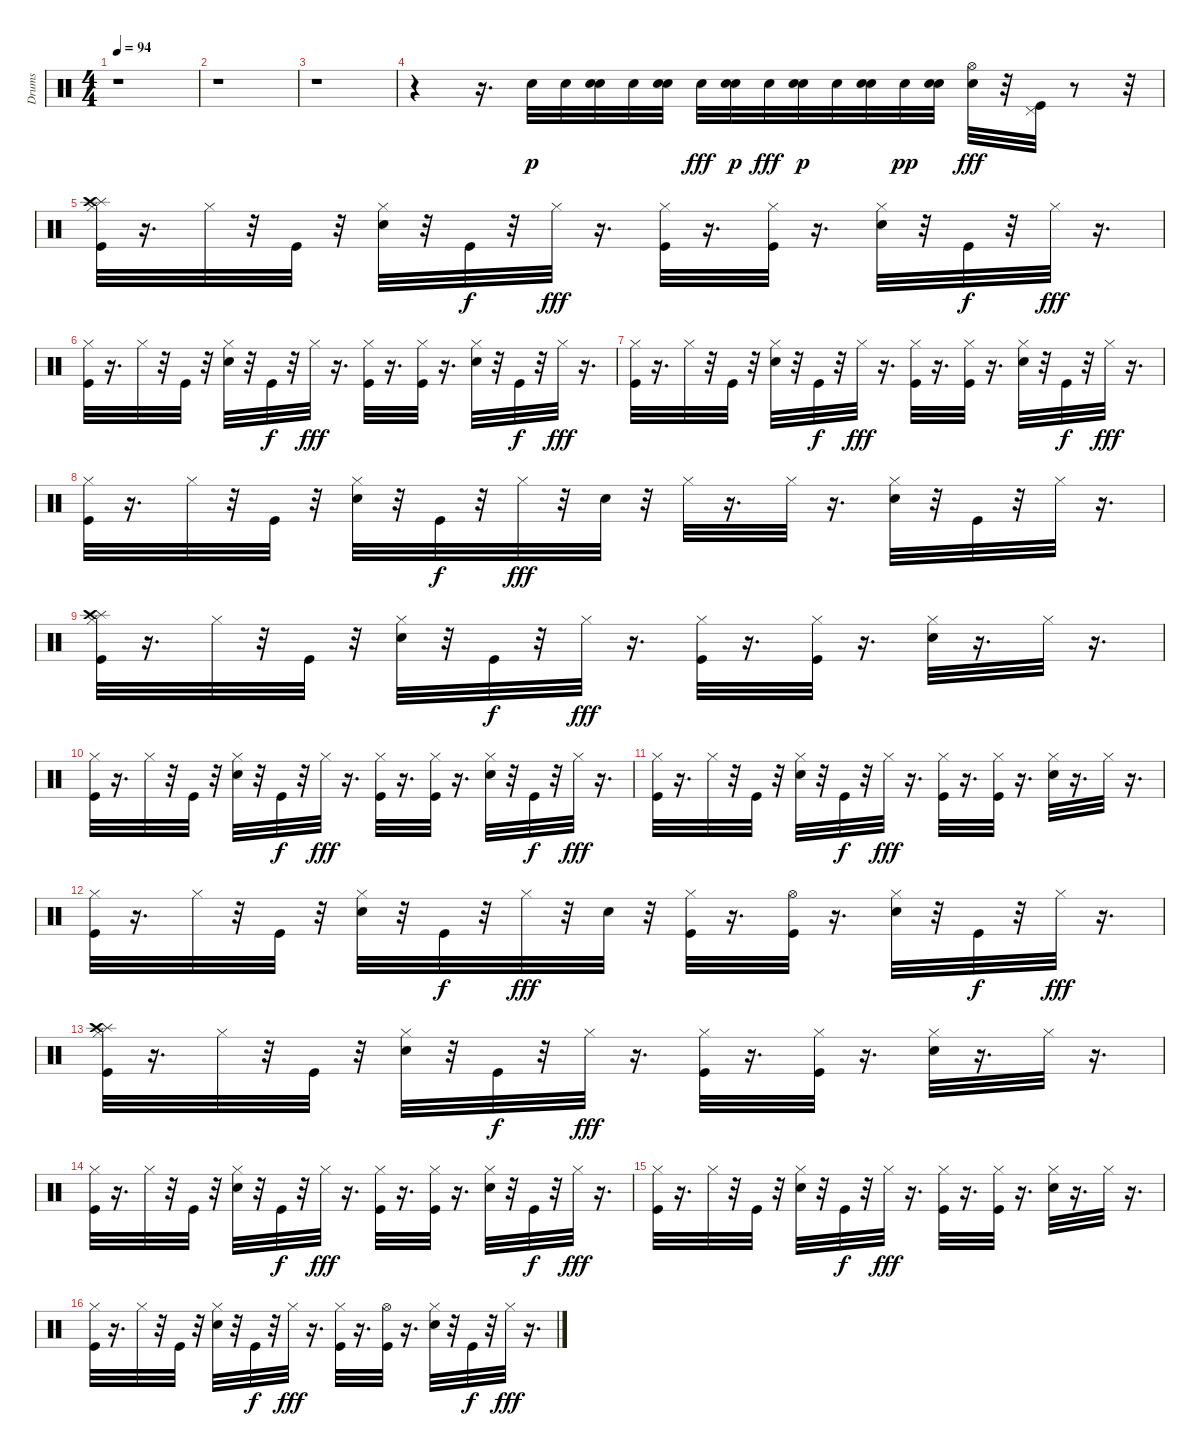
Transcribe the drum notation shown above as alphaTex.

\track ("Drums" "Drums") {instrument percussion}
\staff {score}
\articulation defaults
\ts (4 4)
\tempo 94
\clef neutral
\ks c
r.1{dy p} |
r.1 |
r.1 |
r.4 r.16{d} "Snare (hit) 2".32 "Snare (hit) 2".32 ("Snare (hit) 2" "Snare (hit) 2").32 "Snare (hit) 2".32 ("Snare (hit) 2" "Snare (hit) 2").32 "Electric Snare (hit)".32{dy fff} ("Snare (hit) 2" "Snare (hit) 2").32{dy p} "Electric Snare (hit)".32{dy fff} ("Snare (hit) 2" "Snare (hit) 2").32{dy p} "Snare (hit) 2".32 ("Snare (hit) 2" "Snare (hit) 2").32 "Snare (hit) 2".32{dy pp} ("Snare (hit) 2" "Snare (hit) 2").32 ("Hi-Hat (open)" "Electric Snare (hit)").32{dy fff} r.32 ("Pedal Hi-Hat (hit)" "Kick (hit)").32 r.8 r.32 |
("Splash (hit)" "Crash high (hit)" "Kick (hit)" "Hi-Hat (closed)").32 r.16{d} "Hi-Hat (closed)".32 r.32 "Kick (hit)".32 r.32 ("Electric Snare (hit)" "Hi-Hat (closed)").32 r.32 "Kick (hit)".32{dy f} r.32 "Hi-Hat (closed)".32{dy fff} r.16{d} ("Hi-Hat (closed)" "Kick (hit)").32 r.16{d} ("Hi-Hat (closed)" "Kick (hit)").32 r.16{d} ("Electric Snare (hit)" "Hi-Hat (closed)").32 r.32 "Kick (hit)".32{dy f} r.32 "Hi-Hat (closed)".32{dy fff} r.16{d} |
("Kick (hit)" "Hi-Hat (closed)").32 r.16{d} "Hi-Hat (closed)".32 r.32 "Kick (hit)".32 r.32 ("Electric Snare (hit)" "Hi-Hat (closed)").32 r.32 "Kick (hit)".32{dy f} r.32 "Hi-Hat (closed)".32{dy fff} r.16{d} ("Hi-Hat (closed)" "Kick (hit)").32 r.16{d} ("Hi-Hat (closed)" "Kick (hit)").32 r.16{d} ("Electric Snare (hit)" "Hi-Hat (closed)").32 r.32 "Kick (hit)".32{dy f} r.32 "Hi-Hat (closed)".32{dy fff} r.16{d} |
("Kick (hit)" "Hi-Hat (closed)").32 r.16{d} "Hi-Hat (closed)".32 r.32 "Kick (hit)".32 r.32 ("Electric Snare (hit)" "Hi-Hat (closed)").32 r.32 "Kick (hit)".32{dy f} r.32 "Hi-Hat (closed)".32{dy fff} r.16{d} ("Hi-Hat (closed)" "Kick (hit)").32 r.16{d} ("Hi-Hat (closed)" "Kick (hit)").32 r.16{d} ("Electric Snare (hit)" "Hi-Hat (closed)").32 r.32 "Kick (hit)".32{dy f} r.32 "Hi-Hat (closed)".32{dy fff} r.16{d} |
("Kick (hit)" "Hi-Hat (closed)").32 r.16{d} "Hi-Hat (closed)".32 r.32 "Kick (hit)".32 r.32 ("Electric Snare (hit)" "Hi-Hat (closed)").32 r.32 "Kick (hit)".32{dy f} r.32 "Hi-Hat (closed)".32{dy fff} r.32 "Electric Snare (hit)".32 r.32 "Hi-Hat (closed)".32 r.16{d} "Hi-Hat (closed)".32 r.16{d} ("Electric Snare (hit)" "Hi-Hat (closed)").32 r.32 "Kick (hit)".32 r.32 "Hi-Hat (closed)".32 r.16{d} |
("Splash (hit)" "Crash high (hit)" "Kick (hit)" "Hi-Hat (closed)").32 r.16{d} "Hi-Hat (closed)".32 r.32 "Kick (hit)".32 r.32 ("Electric Snare (hit)" "Hi-Hat (closed)").32 r.32 "Kick (hit)".32{dy f} r.32 "Hi-Hat (closed)".32{dy fff} r.16{d} ("Hi-Hat (closed)" "Kick (hit)").32 r.16{d} ("Hi-Hat (closed)" "Kick (hit)").32 r.16{d} ("Electric Snare (hit)" "Hi-Hat (closed)").32 r.16{d} "Hi-Hat (closed)".32 r.16{d} |
("Kick (hit)" "Hi-Hat (closed)").32 r.16{d} "Hi-Hat (closed)".32 r.32 "Kick (hit)".32 r.32 ("Electric Snare (hit)" "Hi-Hat (closed)").32 r.32 "Kick (hit)".32{dy f} r.32 "Hi-Hat (closed)".32{dy fff} r.16{d} ("Hi-Hat (closed)" "Kick (hit)").32 r.16{d} ("Hi-Hat (closed)" "Kick (hit)").32 r.16{d} ("Electric Snare (hit)" "Hi-Hat (closed)").32 r.32 "Kick (hit)".32{dy f} r.32 "Hi-Hat (closed)".32{dy fff} r.16{d} |
("Kick (hit)" "Hi-Hat (closed)").32 r.16{d} "Hi-Hat (closed)".32 r.32 "Kick (hit)".32 r.32 ("Electric Snare (hit)" "Hi-Hat (closed)").32 r.32 "Kick (hit)".32{dy f} r.32 "Hi-Hat (closed)".32{dy fff} r.16{d} ("Hi-Hat (closed)" "Kick (hit)").32 r.16{d} ("Hi-Hat (closed)" "Kick (hit)").32 r.16{d} ("Electric Snare (hit)" "Hi-Hat (closed)").32 r.16{d} "Hi-Hat (closed)".32 r.16{d} |
("Kick (hit)" "Hi-Hat (closed)").32 r.16{d} "Hi-Hat (closed)".32 r.32 "Kick (hit)".32 r.32 ("Electric Snare (hit)" "Hi-Hat (closed)").32 r.32 "Kick (hit)".32{dy f} r.32 "Hi-Hat (closed)".32{dy fff} r.32 "Electric Snare (hit)".32 r.32 ("Hi-Hat (closed)" "Kick (hit)").32 r.16{d} ("Hi-Hat (open)" "Kick (hit)").32 r.16{d} ("Hi-Hat (closed)" "Electric Snare (hit)").32 r.32 "Kick (hit)".32{dy f} r.32 "Hi-Hat (closed)".32{dy fff} r.16{d} |
("Splash (hit)" "Crash high (hit)" "Kick (hit)" "Hi-Hat (closed)").32 r.16{d} "Hi-Hat (closed)".32 r.32 "Kick (hit)".32 r.32 ("Electric Snare (hit)" "Hi-Hat (closed)").32 r.32 "Kick (hit)".32{dy f} r.32 "Hi-Hat (closed)".32{dy fff} r.16{d} ("Hi-Hat (closed)" "Kick (hit)").32 r.16{d} ("Hi-Hat (closed)" "Kick (hit)").32 r.16{d} ("Electric Snare (hit)" "Hi-Hat (closed)").32 r.16{d} "Hi-Hat (closed)".32 r.16{d} |
("Kick (hit)" "Hi-Hat (closed)").32 r.16{d} "Hi-Hat (closed)".32 r.32 "Kick (hit)".32 r.32 ("Electric Snare (hit)" "Hi-Hat (closed)").32 r.32 "Kick (hit)".32{dy f} r.32 "Hi-Hat (closed)".32{dy fff} r.16{d} ("Hi-Hat (closed)" "Kick (hit)").32 r.16{d} ("Hi-Hat (closed)" "Kick (hit)").32 r.16{d} ("Electric Snare (hit)" "Hi-Hat (closed)").32 r.32 "Kick (hit)".32{dy f} r.32 "Hi-Hat (closed)".32{dy fff} r.16{d} |
("Kick (hit)" "Hi-Hat (closed)").32 r.16{d} "Hi-Hat (closed)".32 r.32 "Kick (hit)".32 r.32 ("Electric Snare (hit)" "Hi-Hat (closed)").32 r.32 "Kick (hit)".32{dy f} r.32 "Hi-Hat (closed)".32{dy fff} r.16{d} ("Hi-Hat (closed)" "Kick (hit)").32 r.16{d} ("Hi-Hat (closed)" "Kick (hit)").32 r.16{d} ("Electric Snare (hit)" "Hi-Hat (closed)").32 r.16{d} "Hi-Hat (closed)".32 r.16{d} |
("Kick (hit)" "Hi-Hat (closed)").32 r.16{d} "Hi-Hat (closed)".32 r.32 "Kick (hit)".32 r.32 ("Electric Snare (hit)" "Hi-Hat (closed)").32 r.32 "Kick (hit)".32{dy f} r.32 "Hi-Hat (closed)".32{dy fff} r.16{d} ("Hi-Hat (closed)" "Kick (hit)").32 r.16{d} ("Hi-Hat (open)" "Kick (hit)").32 r.16{d} ("Hi-Hat (closed)" "Electric Snare (hit)").32 r.32 "Kick (hit)".32{dy f} r.32 "Hi-Hat (closed)".32{dy fff} r.16{d}
